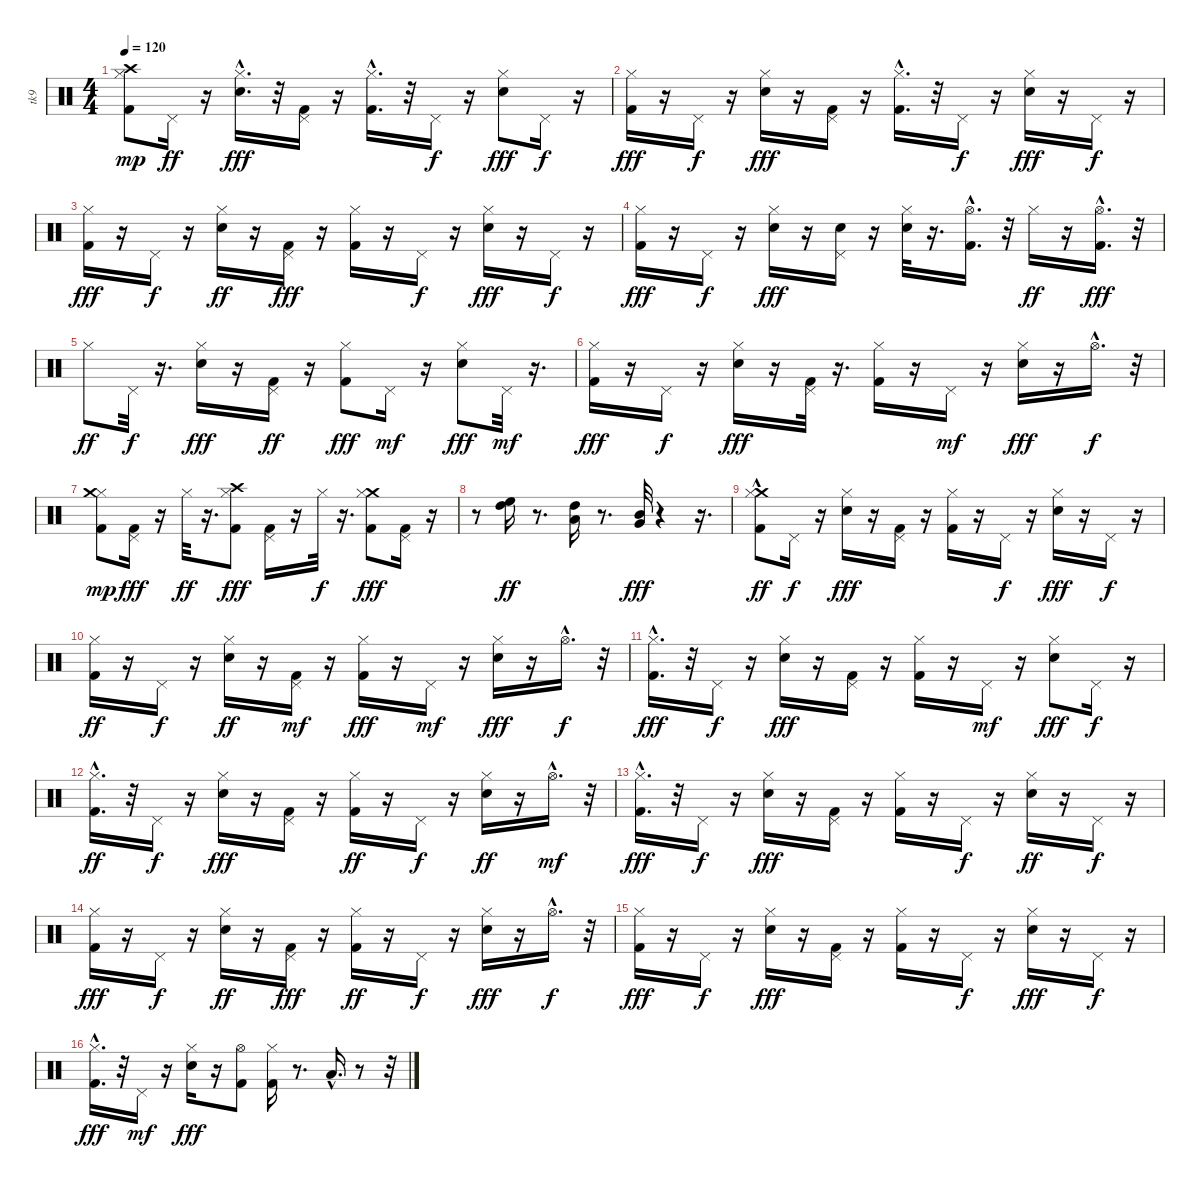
\track ("tk9" "tk9") {instrument percussion}
\staff {score}
\articulation defaults
\ts (4 4)
\tempo 120
\clef neutral
\ks c
("Kick (hit) 2" "Hi-Hat (closed)" "Crash high (hit)").8{dy mp} "Pedal Hi-Hat (hit)".16{dy ff} r.16 ("Hi-Hat (closed)"{hac} "Snare (hit) 2").16{d dy fff} r.32 ("Pedal Hi-Hat (hit)" "Kick (hit) 2").16 r.16 ("Hi-Hat (closed)"{hac} "Kick (hit) 2").16{d} r.32 "Pedal Hi-Hat (hit)".16{dy f} r.16 ("Hi-Hat (closed)" "Snare (hit) 2").8{dy fff} "Pedal Hi-Hat (hit)".16{dy f} r.16 |
("Hi-Hat (closed)" "Kick (hit) 2").16{dy fff} r.16 "Pedal Hi-Hat (hit)".16{dy f} r.16 ("Hi-Hat (closed)" "Snare (hit) 2").16{dy fff} r.16 ("Pedal Hi-Hat (hit)" "Kick (hit) 2").16 r.16 ("Hi-Hat (closed)" "Kick (hit) 2"{hac}).16{d} r.32 "Pedal Hi-Hat (hit)".16{dy f} r.16 ("Hi-Hat (closed)" "Snare (hit) 2").16{dy fff} r.16 "Pedal Hi-Hat (hit)".16{dy f} r.16 |
("Hi-Hat (closed)" "Kick (hit) 2").16{dy fff} r.16 "Pedal Hi-Hat (hit)".16{dy f} r.16 ("Snare (hit) 2" "Hi-Hat (closed)").16{dy ff} r.16 ("Pedal Hi-Hat (hit)" "Kick (hit) 2").16{dy fff} r.16 ("Hi-Hat (closed)" "Kick (hit) 2").16 r.16 "Pedal Hi-Hat (hit)".16{dy f} r.16 ("Hi-Hat (closed)" "Snare (hit) 2").16{dy fff} r.16 "Pedal Hi-Hat (hit)".16{dy f} r.16 |
("Hi-Hat (closed)" "Kick (hit) 2").16{dy fff} r.16 "Pedal Hi-Hat (hit)".16{dy f} r.16 ("Hi-Hat (closed)" "Snare (hit) 2").16{dy fff} r.16 ("Pedal Hi-Hat (hit)" "Snare (hit) 2").16 r.16 ("Hi-Hat (closed)" "Snare (hit) 2").32 r.16{d} ("Kick (hit) 2" "Hi-Hat (open)"{hac}).16{d} r.32 "Hi-Hat (closed)".16{dy ff} r.16 ("Hi-Hat (open)"{hac} "Kick (hit) 2").16{d dy fff} r.32 |
"Hi-Hat (closed)".8{dy ff} "Pedal Hi-Hat (hit)".32{dy f} r.16{d} ("Hi-Hat (closed)" "Snare (hit) 2").16{dy fff} r.16 ("Pedal Hi-Hat (hit)" "Kick (hit) 2").16{dy ff} r.16 ("Hi-Hat (closed)" "Kick (hit) 2").8{dy fff} "Pedal Hi-Hat (hit)".16{dy mf} r.16 ("Hi-Hat (closed)" "Snare (hit) 2").8{dy fff} "Pedal Hi-Hat (hit)".32{dy mf} r.16{d} |
("Hi-Hat (closed)" "Kick (hit) 2").16{dy fff} r.16 "Pedal Hi-Hat (hit)".16{dy f} r.16 ("Hi-Hat (closed)" "Snare (hit) 2").16{dy fff} r.16 ("Pedal Hi-Hat (hit)" "Kick (hit) 2").32 r.16{d} ("Hi-Hat (closed)" "Kick (hit) 2").16 r.16 "Pedal Hi-Hat (hit)".16{dy mf} r.16 ("Hi-Hat (closed)" "Snare (hit) 2").16{dy fff} r.16 "Hi-Hat (open)"{hac}.16{d dy f} r.32 |
("Hi-Hat (closed)" "Kick (hit) 2" "Crash medium (hit)").8{dy mp} ("Pedal Hi-Hat (hit)" "Kick (hit) 2").16{dy fff} r.16 "Hi-Hat (closed)".32{dy ff} r.16{d} ("Crash high (hit)" "Hi-Hat (closed)" "Kick (hit) 2").8{dy fff} ("Pedal Hi-Hat (hit)" "Kick (hit) 2").16 r.16 "Hi-Hat (closed)".32{dy f} r.16{d} ("Crash medium (hit)" "Hi-Hat (closed)" "Kick (hit) 2").8{dy fff} ("Pedal Hi-Hat (hit)" "Kick (hit) 2").16 r.16 |
r.8 ("High Tom (hit)" "High Floor Tom (hit)").16{dy ff} r.8{d} ("Low Tom (hit)" "High Tom (hit)").16 r.8{d} ("Mid Tom (hit)" "Very Low Tom (hit)").32{dy fff} r.4 r.16{d} |
("Kick (hit) 2"{hac} "Crash medium (hit)" "Hi-Hat (closed)").8{dy ff} "Pedal Hi-Hat (hit)".16{dy f} r.16 ("Hi-Hat (closed)" "Snare (hit) 2").16{dy fff} r.16 ("Pedal Hi-Hat (hit)" "Kick (hit) 2").16 r.16 ("Hi-Hat (closed)" "Kick (hit) 2").16 r.16 "Pedal Hi-Hat (hit)".16{dy f} r.16 ("Hi-Hat (closed)" "Snare (hit) 2").16{dy fff} r.16 "Pedal Hi-Hat (hit)".16{dy f} r.16 |
("Kick (hit) 2" "Hi-Hat (closed)").16{dy ff} r.16 "Pedal Hi-Hat (hit)".16{dy f} r.16 ("Snare (hit) 2" "Hi-Hat (closed)").16{dy ff} r.16 ("Kick (hit) 2" "Pedal Hi-Hat (hit)").16{dy mf} r.16 ("Hi-Hat (closed)" "Kick (hit) 2").16{dy fff} r.16 "Pedal Hi-Hat (hit)".16{dy mf} r.16 ("Hi-Hat (closed)" "Snare (hit) 2").16{dy fff} r.16 "Hi-Hat (open)"{hac}.16{d dy f} r.32 |
("Hi-Hat (closed)"{hac} "Kick (hit) 2").16{d dy fff} r.32 "Pedal Hi-Hat (hit)".16{dy f} r.16 ("Hi-Hat (closed)" "Snare (hit) 2").16{dy fff} r.16 ("Pedal Hi-Hat (hit)" "Kick (hit) 2").16 r.16 ("Hi-Hat (closed)" "Kick (hit) 2").16 r.16 "Pedal Hi-Hat (hit)".16{dy mf} r.16 ("Hi-Hat (closed)" "Snare (hit) 2").8{dy fff} "Pedal Hi-Hat (hit)".16{dy f} r.16 |
("Kick (hit) 2"{hac} "Hi-Hat (closed)"{hac}).16{d dy ff} r.32 "Pedal Hi-Hat (hit)".16{dy f} r.16 ("Hi-Hat (closed)" "Snare (hit) 2").16{dy fff} r.16 ("Pedal Hi-Hat (hit)" "Kick (hit) 2").16 r.16 ("Kick (hit) 2" "Hi-Hat (closed)").16{dy ff} r.16 "Pedal Hi-Hat (hit)".16{dy f} r.16 ("Snare (hit) 2" "Hi-Hat (closed)").16{dy ff} r.16 "Hi-Hat (open)"{hac}.16{d dy mf} r.32 |
("Hi-Hat (closed)"{hac} "Kick (hit) 2"{hac}).16{d dy fff} r.32 "Pedal Hi-Hat (hit)".16{dy f} r.16 ("Hi-Hat (closed)" "Snare (hit) 2").16{dy fff} r.16 ("Pedal Hi-Hat (hit)" "Kick (hit) 2").16 r.16 ("Hi-Hat (closed)" "Kick (hit) 2").16 r.16 "Pedal Hi-Hat (hit)".16{dy f} r.16 ("Snare (hit) 2" "Hi-Hat (closed)").16{dy ff} r.16 "Pedal Hi-Hat (hit)".16{dy f} r.16 |
("Hi-Hat (closed)" "Kick (hit) 2").16{dy fff} r.16 "Pedal Hi-Hat (hit)".16{dy f} r.16 ("Snare (hit) 2" "Hi-Hat (closed)").16{dy ff} r.16 ("Kick (hit) 2" "Pedal Hi-Hat (hit)").16{dy fff} r.16 ("Kick (hit) 2" "Hi-Hat (closed)").16{dy ff} r.16 "Pedal Hi-Hat (hit)".16{dy f} r.16 ("Snare (hit) 2" "Hi-Hat (closed)").16{dy fff} r.16 "Hi-Hat (open)"{hac}.16{d dy f} r.32 |
("Hi-Hat (closed)" "Kick (hit) 2").16{dy fff} r.16 "Pedal Hi-Hat (hit)".16{dy f} r.16 ("Hi-Hat (closed)" "Snare (hit) 2").16{dy fff} r.16 ("Pedal Hi-Hat (hit)" "Kick (hit) 2").16 r.16 ("Hi-Hat (closed)" "Kick (hit) 2").16 r.16 "Pedal Hi-Hat (hit)".16{dy f} r.16 ("Hi-Hat (closed)" "Snare (hit) 2").16{dy fff} r.16 "Pedal Hi-Hat (hit)".16{dy f} r.16 |
("Hi-Hat (closed)" "Kick (hit) 2"{hac}).16{d dy fff} r.32 "Pedal Hi-Hat (hit)".16{dy mf} r.16 ("Snare (hit) 2" "Hi-Hat (closed)").16{dy fff} r.16 ("Kick (hit) 2" "Hi-Hat (open)").8 ("Hi-Hat (closed)" "Kick (hit) 2").16 r.8{d} "Low Tom (hit)"{hac}.16{d} r.8 r.32
